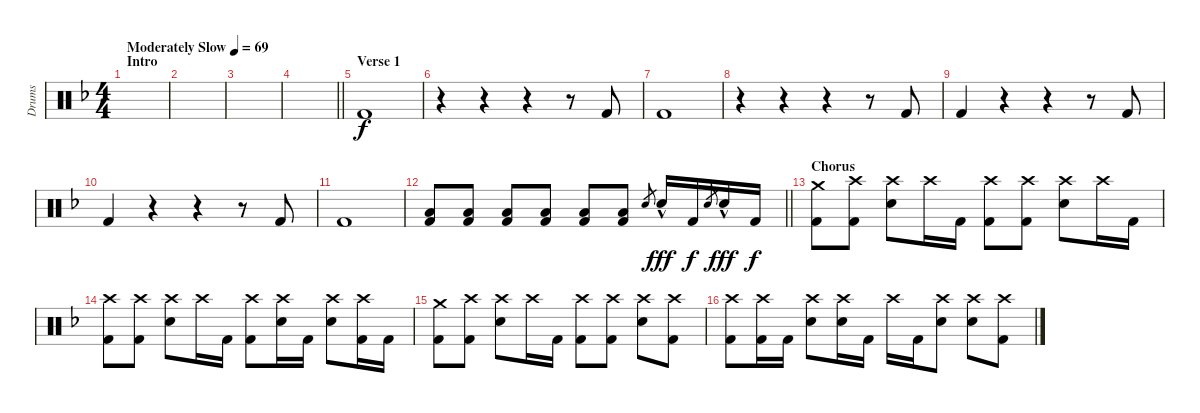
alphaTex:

\track ("Drums" "Drums") {instrument percussion}
\staff {score}
\articulation defaults
\ts (4 4)
\section ("" "Intro")
\tempo (69 "Moderately Slow")
\clef neutral
\ks dminor
|
|
|
\barLineRight lightlight
|
\section ("" "Verse 1")
"Kick (hit) 2".1 |
r.4 r.4 r.4 r.8 "Kick (hit) 2".8 |
"Kick (hit) 2".1 |
r.4 r.4 r.4 r.8 "Kick (hit) 2".8 |
"Kick (hit) 2".4 r.4 r.4 r.8 "Kick (hit) 2".8 |
"Kick (hit) 2".4 r.4 r.4 r.8 "Kick (hit) 2".8 |
"Kick (hit) 2".1 |
\barLineRight lightlight
("Low Floor Tom (hit)" "Kick (hit) 2").8{volume 16} ("Low Floor Tom (hit)" "Kick (hit) 2").8 ("Low Floor Tom (hit)" "Kick (hit) 2").8 ("Low Floor Tom (hit)" "Kick (hit) 2").8 ("Low Floor Tom (hit)" "Kick (hit) 2").8 ("Low Floor Tom (hit)" "Kick (hit) 2").8 "Snare (hit) 2".8{gr} "Snare (hit) 2"{hac}.16{dy fff} "Kick (hit) 2".16{dy f} "Snare (hit) 2".8{gr} "Snare (hit) 2"{hac}.16{dy fff} "Kick (hit) 2".16{dy f} |
\section ("" "Chorus")
("Crash medium (hit)" "Kick (hit) 2").8 ("Crash high (hit)" "Kick (hit) 2").8 ("Crash high (hit)" "Snare (hit) 2").8 "Crash high (hit)".16 "Kick (hit) 2".16 ("Crash high (hit)" "Kick (hit) 2").8 ("Crash high (hit)" "Kick (hit) 2").8 ("Crash high (hit)" "Snare (hit) 2").8 "Crash high (hit)".16 "Kick (hit) 2".16 |
("Crash high (hit)" "Kick (hit) 2").8 ("Crash high (hit)" "Kick (hit) 2").8 ("Crash high (hit)" "Snare (hit) 2").8 "Crash high (hit)".16 "Kick (hit) 2".16 ("Crash high (hit)" "Kick (hit) 2").8 ("Crash high (hit)" "Snare (hit) 2").16 "Kick (hit) 2".16 ("Crash high (hit)" "Snare (hit) 2").8 ("Crash high (hit)" "Kick (hit) 2").16 "Kick (hit) 2".16 |
("Crash medium (hit)" "Kick (hit) 2").8 ("Crash high (hit)" "Kick (hit) 2").8 ("Crash high (hit)" "Snare (hit) 2").8 "Crash high (hit)".16 "Kick (hit) 2".16 ("Crash high (hit)" "Kick (hit) 2").8 ("Crash high (hit)" "Kick (hit) 2").8 ("Crash high (hit)" "Snare (hit) 2").8 ("Crash high (hit)" "Kick (hit) 2").8 |
("Crash high (hit)" "Kick (hit) 2").8 ("Crash high (hit)" "Kick (hit) 2").16 "Kick (hit) 2".16 ("Crash high (hit)" "Snare (hit) 2").8 ("Crash high (hit)" "Snare (hit) 2").16 "Kick (hit) 2".16 "Crash high (hit)".16 "Kick (hit) 2".16 ("Crash high (hit)" "Snare (hit) 2").8 ("Crash high (hit)" "Snare (hit) 2").8 ("Crash high (hit)" "Kick (hit) 2").8
